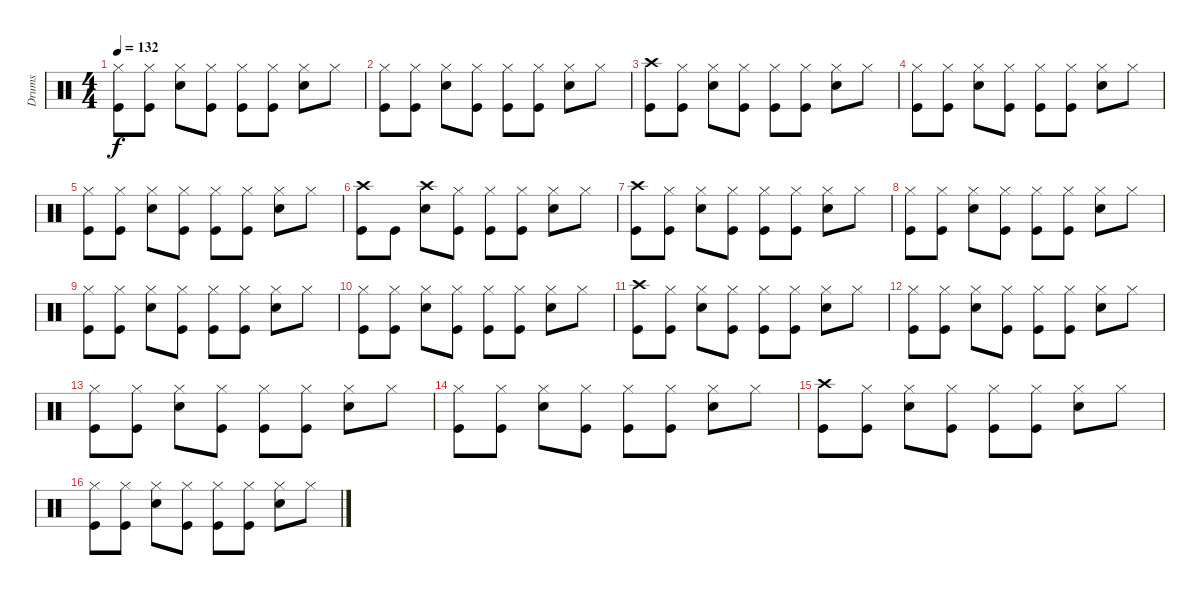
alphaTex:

\track ("Drums" "Drums") {instrument percussion}
\staff {score}
\articulation defaults
\ts (4 4)
\tempo 132
\clef neutral
\ks c
("Hi-Hat (closed)" "Kick (hit)").8{dy f} ("Hi-Hat (closed)" "Kick (hit)").8 ("Electric Snare (hit)" "Hi-Hat (closed)").8 ("Kick (hit)" "Hi-Hat (closed)").8 ("Hi-Hat (closed)" "Kick (hit)").8 ("Hi-Hat (closed)" "Kick (hit)").8 ("Hi-Hat (closed)" "Snare (hit) 2").8 "Hi-Hat (closed)".8 |
("Hi-Hat (closed)" "Kick (hit)").8 ("Hi-Hat (closed)" "Kick (hit)").8 ("Electric Snare (hit)" "Hi-Hat (closed)").8 ("Kick (hit)" "Hi-Hat (closed)").8 ("Hi-Hat (closed)" "Kick (hit)").8 ("Hi-Hat (closed)" "Kick (hit)").8 ("Hi-Hat (closed)" "Snare (hit) 2").8 "Hi-Hat (closed)".8 |
("Crash high (hit)" "Kick (hit)").8 ("Hi-Hat (closed)" "Kick (hit)").8 ("Electric Snare (hit)" "Hi-Hat (closed)").8 ("Kick (hit)" "Hi-Hat (closed)").8 ("Hi-Hat (closed)" "Kick (hit)").8 ("Hi-Hat (closed)" "Kick (hit)").8 ("Hi-Hat (closed)" "Snare (hit) 2").8 "Hi-Hat (closed)".8 |
("Hi-Hat (closed)" "Kick (hit)").8 ("Hi-Hat (closed)" "Kick (hit)").8 ("Electric Snare (hit)" "Hi-Hat (closed)").8 ("Kick (hit)" "Hi-Hat (closed)").8 ("Hi-Hat (closed)" "Kick (hit)").8 ("Hi-Hat (closed)" "Kick (hit)").8 ("Hi-Hat (closed)" "Snare (hit) 2").8 "Hi-Hat (closed)".8 |
("Hi-Hat (closed)" "Kick (hit)").8 ("Hi-Hat (closed)" "Kick (hit)").8 ("Electric Snare (hit)" "Hi-Hat (closed)").8 ("Kick (hit)" "Hi-Hat (closed)").8 ("Hi-Hat (closed)" "Kick (hit)").8 ("Hi-Hat (closed)" "Kick (hit)").8 ("Hi-Hat (closed)" "Snare (hit) 2").8 "Hi-Hat (closed)".8 |
("Crash high (hit)" "Kick (hit)").8 "Kick (hit)".8 ("Electric Snare (hit)" "Crash high (hit)").8 ("Kick (hit)" "Hi-Hat (closed)").8 ("Hi-Hat (closed)" "Kick (hit)").8 ("Hi-Hat (closed)" "Kick (hit)").8 ("Hi-Hat (closed)" "Snare (hit) 2").8 "Hi-Hat (closed)".8 |
("Crash high (hit)" "Kick (hit)").8 ("Hi-Hat (closed)" "Kick (hit)").8 ("Electric Snare (hit)" "Hi-Hat (closed)").8 ("Kick (hit)" "Hi-Hat (closed)").8 ("Hi-Hat (closed)" "Kick (hit)").8 ("Hi-Hat (closed)" "Kick (hit)").8 ("Hi-Hat (closed)" "Snare (hit) 2").8 "Hi-Hat (closed)".8 |
("Hi-Hat (closed)" "Kick (hit)").8 ("Hi-Hat (closed)" "Kick (hit)").8 ("Electric Snare (hit)" "Hi-Hat (closed)").8 ("Kick (hit)" "Hi-Hat (closed)").8 ("Hi-Hat (closed)" "Kick (hit)").8 ("Hi-Hat (closed)" "Kick (hit)").8 ("Hi-Hat (closed)" "Snare (hit) 2").8 "Hi-Hat (closed)".8 |
("Hi-Hat (closed)" "Kick (hit)").8 ("Hi-Hat (closed)" "Kick (hit)").8 ("Electric Snare (hit)" "Hi-Hat (closed)").8 ("Kick (hit)" "Hi-Hat (closed)").8 ("Hi-Hat (closed)" "Kick (hit)").8 ("Hi-Hat (closed)" "Kick (hit)").8 ("Hi-Hat (closed)" "Snare (hit) 2").8 "Hi-Hat (closed)".8 |
("Hi-Hat (closed)" "Kick (hit)").8 ("Hi-Hat (closed)" "Kick (hit)").8 ("Electric Snare (hit)" "Hi-Hat (closed)").8 ("Kick (hit)" "Hi-Hat (closed)").8 ("Hi-Hat (closed)" "Kick (hit)").8 ("Hi-Hat (closed)" "Kick (hit)").8 ("Hi-Hat (closed)" "Snare (hit) 2").8 "Hi-Hat (closed)".8 |
("Crash high (hit)" "Kick (hit)").8 ("Hi-Hat (closed)" "Kick (hit)").8 ("Electric Snare (hit)" "Hi-Hat (closed)").8 ("Kick (hit)" "Hi-Hat (closed)").8 ("Hi-Hat (closed)" "Kick (hit)").8 ("Hi-Hat (closed)" "Kick (hit)").8 ("Hi-Hat (closed)" "Snare (hit) 2").8 "Hi-Hat (closed)".8 |
("Hi-Hat (closed)" "Kick (hit)").8 ("Hi-Hat (closed)" "Kick (hit)").8 ("Electric Snare (hit)" "Hi-Hat (closed)").8 ("Kick (hit)" "Hi-Hat (closed)").8 ("Hi-Hat (closed)" "Kick (hit)").8 ("Hi-Hat (closed)" "Kick (hit)").8 ("Hi-Hat (closed)" "Snare (hit) 2").8 "Hi-Hat (closed)".8 |
("Hi-Hat (closed)" "Kick (hit)").8 ("Hi-Hat (closed)" "Kick (hit)").8 ("Electric Snare (hit)" "Hi-Hat (closed)").8 ("Kick (hit)" "Hi-Hat (closed)").8 ("Hi-Hat (closed)" "Kick (hit)").8 ("Hi-Hat (closed)" "Kick (hit)").8 ("Hi-Hat (closed)" "Snare (hit) 2").8 "Hi-Hat (closed)".8 |
("Hi-Hat (closed)" "Kick (hit)").8 ("Hi-Hat (closed)" "Kick (hit)").8 ("Electric Snare (hit)" "Hi-Hat (closed)").8 ("Kick (hit)" "Hi-Hat (closed)").8 ("Hi-Hat (closed)" "Kick (hit)").8 ("Hi-Hat (closed)" "Kick (hit)").8 ("Hi-Hat (closed)" "Snare (hit) 2").8 "Hi-Hat (closed)".8 |
("Crash high (hit)" "Kick (hit)").8 ("Hi-Hat (closed)" "Kick (hit)").8 ("Electric Snare (hit)" "Hi-Hat (closed)").8 ("Kick (hit)" "Hi-Hat (closed)").8 ("Hi-Hat (closed)" "Kick (hit)").8 ("Hi-Hat (closed)" "Kick (hit)").8 ("Hi-Hat (closed)" "Snare (hit) 2").8 "Hi-Hat (closed)".8 |
("Hi-Hat (closed)" "Kick (hit)").8 ("Hi-Hat (closed)" "Kick (hit)").8 ("Electric Snare (hit)" "Hi-Hat (closed)").8 ("Kick (hit)" "Hi-Hat (closed)").8 ("Hi-Hat (closed)" "Kick (hit)").8 ("Hi-Hat (closed)" "Kick (hit)").8 ("Hi-Hat (closed)" "Snare (hit) 2").8 "Hi-Hat (closed)".8
